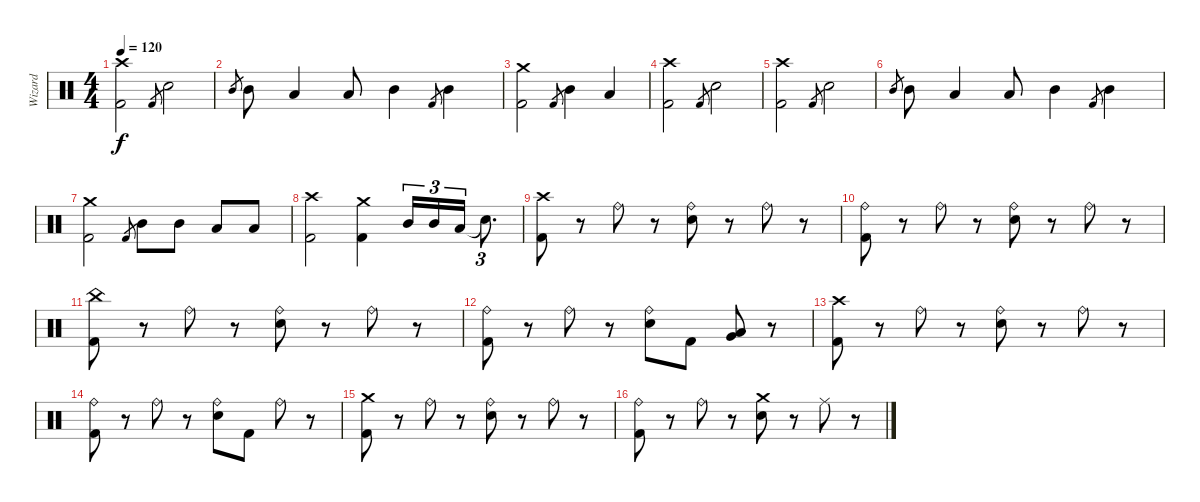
\track ("Wizard" "Wizard") {instrument percussion}
\staff {score}
\articulation defaults
\ts (4 4)
\tempo 120
\clef neutral
\ks c
("Crash high (hit)" "Kick (hit) 2").2{dy f} "Kick (hit) 2".8{gr} "Snare (hit) 2".2 |
"Mid Tom (hit)".8{gr} "Mid Tom (hit)".8 "Low Tom (hit)".4 "Low Tom (hit)".8 "Mid Tom (hit)".4 "Kick (hit) 2".8{gr} "Mid Tom (hit)".4 |
("Crash medium (hit)" "Kick (hit) 2").2 "Kick (hit) 2".8{gr} "Mid Tom (hit)".4 "Low Tom (hit)".4 |
("Crash high (hit)" "Kick (hit) 2").2 "Kick (hit) 2".8{gr} "Snare (hit) 2".2 |
("Crash high (hit)" "Kick (hit) 2").2 "Kick (hit) 2".8{gr} "Snare (hit) 2".2 |
"Mid Tom (hit)".8{gr} "Mid Tom (hit)".8 "Low Tom (hit)".4 "Low Tom (hit)".8 "Mid Tom (hit)".4 "Kick (hit) 2".8{gr} "Mid Tom (hit)".4 |
("Crash medium (hit)" "Kick (hit) 2").2 "Kick (hit) 2".8{gr} "Mid Tom (hit)".8 "Mid Tom (hit)".8 "Low Tom (hit)".8 "Low Tom (hit)".8 |
("Crash high (hit)" "Kick (hit) 2").2 ("Crash medium (hit)" "Kick (hit) 2").4 "Mid Tom (hit)".16{tu (3 2)} "Mid Tom (hit)".16{tu (3 2)} "Low Tom (hit)".16{tu (3 2)} "Snare (hit)"{t}.8{d tu (3 2)} |
("Crash high (hit)" "Kick (hit) 2").8 r.8 "Ride (bell)".8 r.8 ("Ride (bell)" "Snare (hit) 2").8 r.8 "Ride (bell)".8 r.8 |
("Ride (bell)" "Kick (hit) 2").8 r.8 "Ride (bell)".8 r.8 ("Ride (bell)" "Snare (hit) 2").8 r.8 "Ride (bell)".8 r.8 |
("China (hit)" "Kick (hit) 2").8 r.8 "Ride (bell)".8 r.8 ("Ride (bell)" "Snare (hit) 2").8 r.8 "Ride (bell)".8 r.8 |
("Ride (bell)" "Kick (hit) 2").8 r.8 "Ride (bell)".8 r.8 ("Ride (bell)" "Snare (hit) 2").8 "Kick (hit) 2".8 ("Low Tom (hit)" "Very Low Tom (hit)").8 r.8 |
("Crash high (hit)" "Kick (hit) 2").8 r.8 "Ride (bell)".8 r.8 ("Ride (bell)" "Snare (hit) 2").8 r.8 "Ride (bell)".8 r.8 |
("Ride (bell)" "Kick (hit) 2").8 r.8 "Ride (bell)".8 r.8 ("Ride (bell)" "Snare (hit) 2").8 "Kick (hit) 2".8 "Ride (bell)".8 r.8 |
("Crash medium (hit)" "Kick (hit) 2").8 r.8 "Ride (bell)".8 r.8 ("Ride (bell)" "Snare (hit) 2").8 r.8 "Ride (bell)".8 r.8 |
("Ride (bell)" "Kick (hit) 2").8 r.8 "Ride (bell)".8 r.8 ("Crash medium (hit)" "Snare (hit) 2").8 r.8 "Ride (middle)".8 r.8
